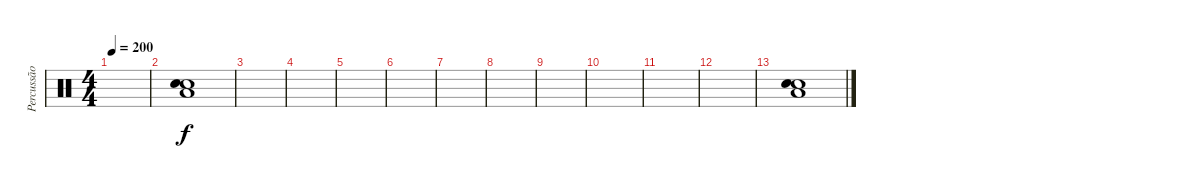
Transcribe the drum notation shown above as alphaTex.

\track ("Percussão" "Percussão") {instrument percussion}
\staff {score}
\articulation defaults
\ts (4 4)
\tempo 200
\clef neutral
\ks c
|
("Snare (hit)" "Low Tom (hit)" "Metronome (bell)").1 |
|
|
|
|
|
|
|
|
|
|
("Snare (hit)" "Low Tom (hit)" "Metronome (bell)").1
